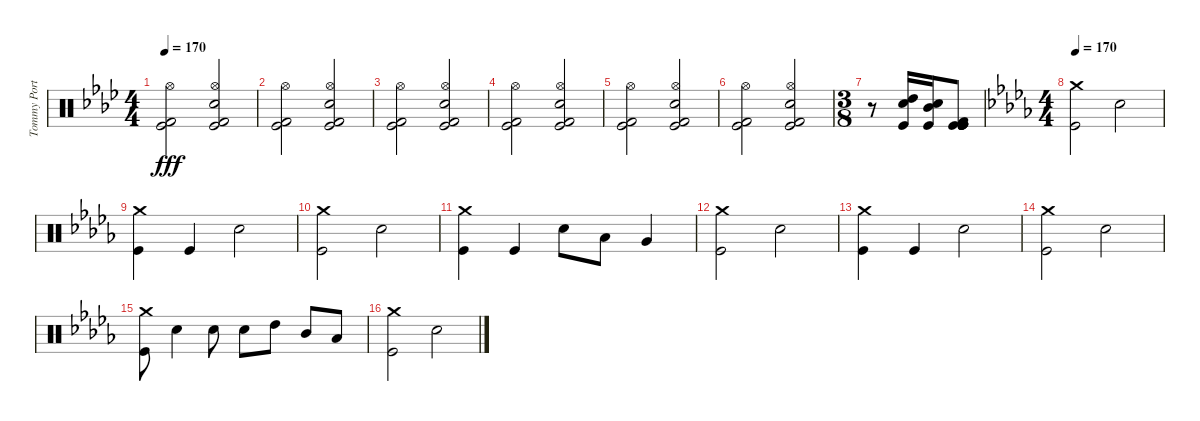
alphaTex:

\track ("Tommy Portimo (Percussion)" "Tommy Port") {instrument percussion}
\staff {score}
\articulation defaults
\ts (4 4)
\tempo 170
\clef neutral
\ks ab
("Kick (hit) 2" "Kick (hit)" "Hi-Hat (open)").2{dy fff} ("Kick (hit) 2" "Kick (hit)" "Hi-Hat (open)" "Electric Snare (hit)").2 |
("Kick (hit) 2" "Kick (hit)" "Hi-Hat (open)").2 ("Kick (hit) 2" "Kick (hit)" "Hi-Hat (open)" "Electric Snare (hit)").2 |
("Kick (hit) 2" "Kick (hit)" "Hi-Hat (open)").2 ("Kick (hit) 2" "Kick (hit)" "Hi-Hat (open)" "Electric Snare (hit)").2 |
("Kick (hit) 2" "Kick (hit)" "Hi-Hat (open)").2 ("Kick (hit) 2" "Kick (hit)" "Hi-Hat (open)" "Electric Snare (hit)").2 |
("Kick (hit) 2" "Kick (hit)" "Hi-Hat (open)").2 ("Kick (hit) 2" "Kick (hit)" "Hi-Hat (open)" "Electric Snare (hit)").2 |
("Kick (hit) 2" "Kick (hit)" "Hi-Hat (open)").2 ("Kick (hit) 2" "Kick (hit)" "Hi-Hat (open)" "Electric Snare (hit)").2 |
\ts (3 8)
r.8 ("Electric Snare (hit)" "Kick (hit)" "High Tom (hit)").16 ("Electric Snare (hit)" "Kick (hit)" "Mid Tom (hit)").16 ("Kick (hit)" "Kick (hit)" "Kick (hit) 2" "Kick (hit)" "Kick (hit)" "Kick (hit)").8 |
\ts (4 4)
\tempo 170
\ks db
("Kick (hit)" "Crash medium (hit)").2 "Electric Snare (hit)".2 |
("Kick (hit)" "Crash medium (hit)").4 "Kick (hit)".4 "Electric Snare (hit)".2 |
("Kick (hit)" "Crash medium (hit)").2 "Electric Snare (hit)".2 |
("Kick (hit)" "Crash medium (hit)").4 "Kick (hit)".4 "Electric Snare (hit)".8 "Low Tom (hit)".8 "Very Low Tom (hit)".4 |
("Kick (hit)" "Crash medium (hit)").2 "Electric Snare (hit)".2 |
("Kick (hit)" "Crash medium (hit)").4 "Kick (hit)".4 "Electric Snare (hit)".2 |
("Kick (hit)" "Crash medium (hit)").2 "Electric Snare (hit)".2 |
("Kick (hit)" "Crash medium (hit)").8 "Electric Snare (hit)".4 "Electric Snare (hit)".8 "Electric Snare (hit)".8 "High Tom (hit)".8 "Mid Tom (hit)".8 "Low Tom (hit)".8 |
("Kick (hit)" "Crash medium (hit)").2 "Electric Snare (hit)".2
